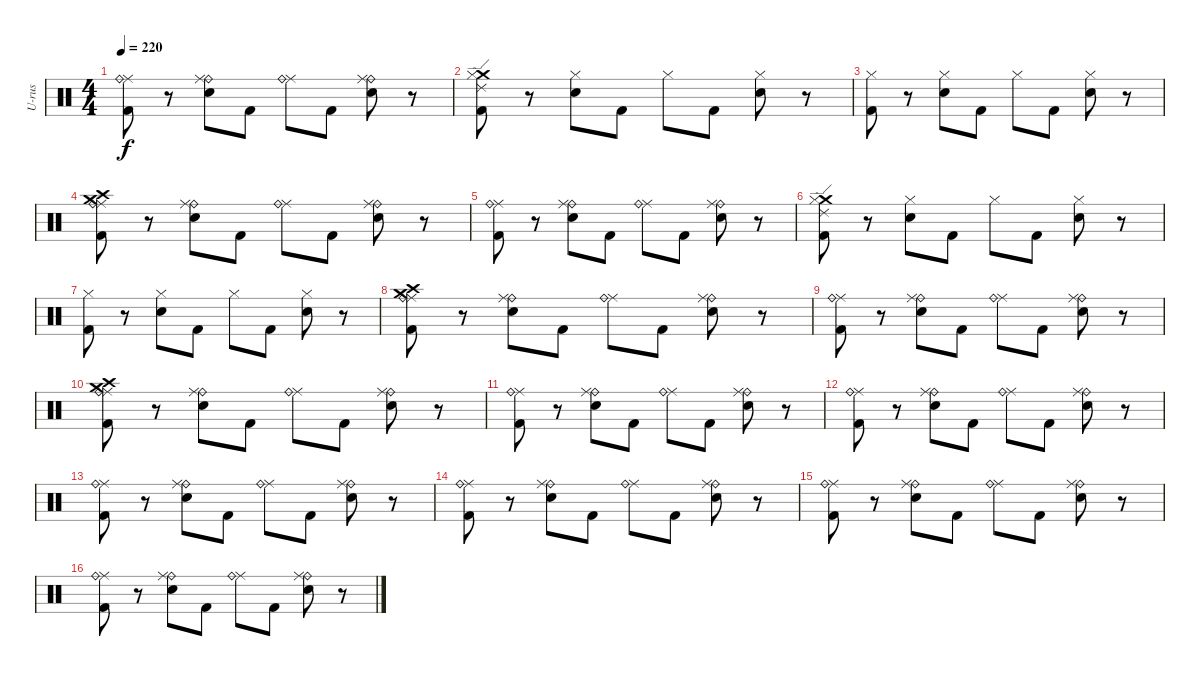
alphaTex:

\track ("U-rus" "U-rus") {instrument percussion}
\staff {score}
\articulation defaults
\ts (4 4)
\tempo 220
\clef neutral
\ks c
("Ride (middle)" "Ride (bell)" "Kick (hit) 2").8{dy f} r.8 ("Ride (bell)" "Ride (middle)" "Snare (hit) 2").8 "Kick (hit) 2".8 ("Ride (middle)" "Ride (bell)").8 "Kick (hit) 2".8 ("Ride (bell)" "Ride (middle)" "Snare (hit) 2").8 r.8 |
("Crash medium (hit)" "Ride (edge) 2" "Hi-Hat (closed)" "Kick (hit) 2").8 r.8 ("Hi-Hat (closed)" "Snare (hit) 2").8 "Kick (hit) 2".8 "Hi-Hat (closed)".8 "Kick (hit) 2".8 ("Hi-Hat (closed)" "Snare (hit) 2").8 r.8 |
("Hi-Hat (closed)" "Kick (hit) 2").8 r.8 ("Hi-Hat (closed)" "Snare (hit) 2").8 "Kick (hit) 2".8 "Hi-Hat (closed)".8 "Kick (hit) 2".8 ("Hi-Hat (closed)" "Snare (hit) 2").8 r.8 |
("Crash medium (hit)" "Crash high (hit)" "Ride (middle)" "Ride (bell)" "Kick (hit) 2").8 r.8 ("Ride (bell)" "Ride (middle)" "Snare (hit) 2").8 "Kick (hit) 2".8 ("Ride (middle)" "Ride (bell)").8 "Kick (hit) 2".8 ("Ride (bell)" "Ride (middle)" "Snare (hit) 2").8 r.8 |
("Ride (middle)" "Ride (bell)" "Kick (hit) 2").8 r.8 ("Ride (bell)" "Ride (middle)" "Snare (hit) 2").8 "Kick (hit) 2".8 ("Ride (middle)" "Ride (bell)").8 "Kick (hit) 2".8 ("Ride (bell)" "Ride (middle)" "Snare (hit) 2").8 r.8 |
("Crash medium (hit)" "Ride (edge) 2" "Hi-Hat (closed)" "Kick (hit) 2").8 r.8 ("Hi-Hat (closed)" "Snare (hit) 2").8 "Kick (hit) 2".8 "Hi-Hat (closed)".8 "Kick (hit) 2".8 ("Hi-Hat (closed)" "Snare (hit) 2").8 r.8 |
("Hi-Hat (closed)" "Kick (hit) 2").8 r.8 ("Hi-Hat (closed)" "Snare (hit) 2").8 "Kick (hit) 2".8 "Hi-Hat (closed)".8 "Kick (hit) 2".8 ("Hi-Hat (closed)" "Snare (hit) 2").8 r.8 |
("Crash medium (hit)" "Crash high (hit)" "Ride (middle)" "Ride (bell)" "Kick (hit) 2").8 r.8 ("Ride (bell)" "Ride (middle)" "Snare (hit) 2").8 "Kick (hit) 2".8 ("Ride (middle)" "Ride (bell)").8 "Kick (hit) 2".8 ("Ride (bell)" "Ride (middle)" "Snare (hit) 2").8 r.8 |
("Ride (middle)" "Ride (bell)" "Kick (hit) 2").8 r.8 ("Ride (bell)" "Ride (middle)" "Snare (hit) 2").8 "Kick (hit) 2".8 ("Ride (middle)" "Ride (bell)").8 "Kick (hit) 2".8 ("Ride (bell)" "Ride (middle)" "Snare (hit) 2").8 r.8 |
("Crash medium (hit)" "Crash high (hit)" "Ride (middle)" "Ride (bell)" "Kick (hit) 2").8 r.8 ("Ride (bell)" "Ride (middle)" "Snare (hit) 2").8 "Kick (hit) 2".8 ("Ride (middle)" "Ride (bell)").8 "Kick (hit) 2".8 ("Ride (bell)" "Ride (middle)" "Snare (hit) 2").8 r.8 |
("Ride (middle)" "Ride (bell)" "Kick (hit) 2").8 r.8 ("Ride (bell)" "Ride (middle)" "Snare (hit) 2").8 "Kick (hit) 2".8 ("Ride (middle)" "Ride (bell)").8 "Kick (hit) 2".8 ("Ride (bell)" "Ride (middle)" "Snare (hit) 2").8 r.8 |
("Ride (middle)" "Ride (bell)" "Kick (hit) 2").8 r.8 ("Ride (bell)" "Ride (middle)" "Snare (hit) 2").8 "Kick (hit) 2".8 ("Ride (middle)" "Ride (bell)").8 "Kick (hit) 2".8 ("Ride (bell)" "Ride (middle)" "Snare (hit) 2").8 r.8 |
("Ride (middle)" "Ride (bell)" "Kick (hit) 2").8 r.8 ("Ride (bell)" "Ride (middle)" "Snare (hit) 2").8 "Kick (hit) 2".8 ("Ride (middle)" "Ride (bell)").8 "Kick (hit) 2".8 ("Ride (bell)" "Ride (middle)" "Snare (hit) 2").8 r.8 |
("Ride (middle)" "Ride (bell)" "Kick (hit) 2").8 r.8 ("Ride (bell)" "Ride (middle)" "Snare (hit) 2").8 "Kick (hit) 2".8 ("Ride (middle)" "Ride (bell)").8 "Kick (hit) 2".8 ("Ride (bell)" "Ride (middle)" "Snare (hit) 2").8 r.8 |
("Ride (middle)" "Ride (bell)" "Kick (hit) 2").8 r.8 ("Ride (bell)" "Ride (middle)" "Snare (hit) 2").8 "Kick (hit) 2".8 ("Ride (middle)" "Ride (bell)").8 "Kick (hit) 2".8 ("Ride (bell)" "Ride (middle)" "Snare (hit) 2").8 r.8 |
("Ride (middle)" "Ride (bell)" "Kick (hit) 2").8 r.8 ("Ride (bell)" "Ride (middle)" "Snare (hit) 2").8 "Kick (hit) 2".8 ("Ride (middle)" "Ride (bell)").8 "Kick (hit) 2".8 ("Ride (bell)" "Ride (middle)" "Snare (hit) 2").8 r.8
